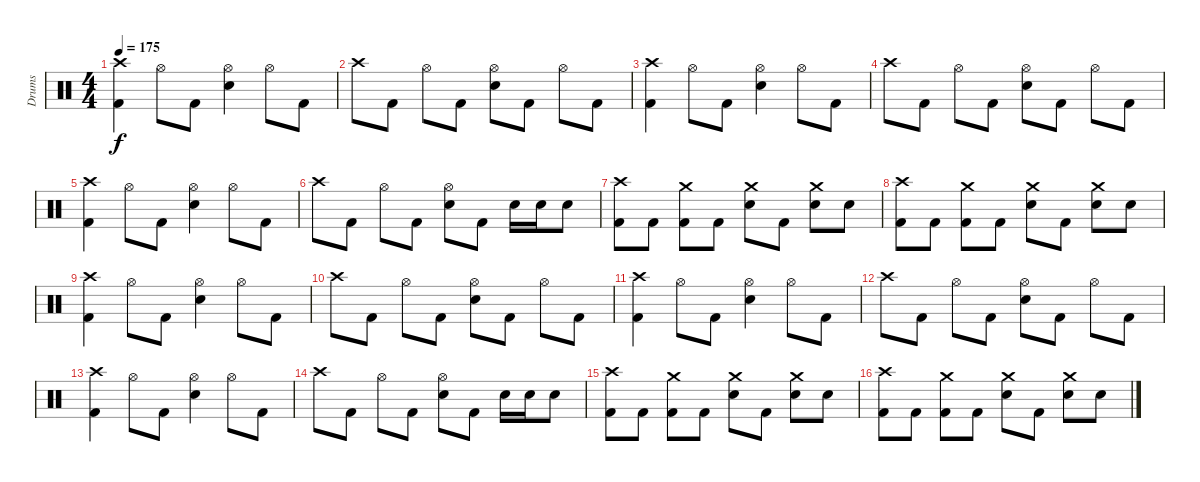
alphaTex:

\track ("Drums" "Drums") {instrument percussion}
\staff {score}
\articulation defaults
\ts (4 4)
\tempo 175
\clef neutral
\ks c
("Crash high (hit)" "Kick (hit) 2").4{dy f} "Hi-Hat (open)".8 "Kick (hit) 2".8 ("Hi-Hat (open)" "Snare (hit) 2").4 "Hi-Hat (open)".8 "Kick (hit) 2".8 |
"Crash high (hit)".8 "Kick (hit) 2".8 "Hi-Hat (open)".8 "Kick (hit) 2".8 ("Hi-Hat (open)" "Snare (hit) 2").8 "Kick (hit) 2".8 "Hi-Hat (open)".8 "Kick (hit) 2".8 |
("Crash high (hit)" "Kick (hit) 2").4 "Hi-Hat (open)".8 "Kick (hit) 2".8 ("Hi-Hat (open)" "Snare (hit) 2").4 "Hi-Hat (open)".8 "Kick (hit) 2".8 |
"Crash high (hit)".8 "Kick (hit) 2".8 "Hi-Hat (open)".8 "Kick (hit) 2".8 ("Hi-Hat (open)" "Snare (hit) 2").8 "Kick (hit) 2".8 "Hi-Hat (open)".8 "Kick (hit) 2".8 |
("Crash high (hit)" "Kick (hit) 2").4 "Hi-Hat (open)".8 "Kick (hit) 2".8 ("Hi-Hat (open)" "Snare (hit) 2").4 "Hi-Hat (open)".8 "Kick (hit) 2".8 |
"Crash high (hit)".8 "Kick (hit) 2".8 "Hi-Hat (open)".8 "Kick (hit) 2".8 ("Hi-Hat (open)" "Snare (hit) 2").8 "Kick (hit) 2".8 "Snare (hit) 2".16 "Snare (hit) 2".16 "Snare (hit) 2".8 |
("Crash high (hit)" "Kick (hit) 2").8 "Kick (hit) 2".8 ("Crash medium (hit)" "Kick (hit) 2").8 "Kick (hit) 2".8 ("Crash medium (hit)" "Snare (hit) 2").8 "Kick (hit) 2".8 ("Crash medium (hit)" "Snare (hit) 2").8 "Snare (hit) 2".8 |
("Crash high (hit)" "Kick (hit) 2").8 "Kick (hit) 2".8 ("Crash medium (hit)" "Kick (hit) 2").8 "Kick (hit) 2".8 ("Crash medium (hit)" "Snare (hit) 2").8 "Kick (hit) 2".8 ("Crash medium (hit)" "Snare (hit) 2").8 "Snare (hit) 2".8 |
("Crash high (hit)" "Kick (hit) 2").4 "Hi-Hat (open)".8 "Kick (hit) 2".8 ("Hi-Hat (open)" "Snare (hit) 2").4 "Hi-Hat (open)".8 "Kick (hit) 2".8 |
"Crash high (hit)".8 "Kick (hit) 2".8 "Hi-Hat (open)".8 "Kick (hit) 2".8 ("Hi-Hat (open)" "Snare (hit) 2").8 "Kick (hit) 2".8 "Hi-Hat (open)".8 "Kick (hit) 2".8 |
("Crash high (hit)" "Kick (hit) 2").4 "Hi-Hat (open)".8 "Kick (hit) 2".8 ("Hi-Hat (open)" "Snare (hit) 2").4 "Hi-Hat (open)".8 "Kick (hit) 2".8 |
"Crash high (hit)".8 "Kick (hit) 2".8 "Hi-Hat (open)".8 "Kick (hit) 2".8 ("Hi-Hat (open)" "Snare (hit) 2").8 "Kick (hit) 2".8 "Hi-Hat (open)".8 "Kick (hit) 2".8 |
("Crash high (hit)" "Kick (hit) 2").4 "Hi-Hat (open)".8 "Kick (hit) 2".8 ("Hi-Hat (open)" "Snare (hit) 2").4 "Hi-Hat (open)".8 "Kick (hit) 2".8 |
"Crash high (hit)".8 "Kick (hit) 2".8 "Hi-Hat (open)".8 "Kick (hit) 2".8 ("Hi-Hat (open)" "Snare (hit) 2").8 "Kick (hit) 2".8 "Snare (hit) 2".16 "Snare (hit) 2".16 "Snare (hit) 2".8 |
("Crash high (hit)" "Kick (hit) 2").8 "Kick (hit) 2".8 ("Crash medium (hit)" "Kick (hit) 2").8 "Kick (hit) 2".8 ("Crash medium (hit)" "Snare (hit) 2").8 "Kick (hit) 2".8 ("Crash medium (hit)" "Snare (hit) 2").8 "Snare (hit) 2".8 |
("Crash high (hit)" "Kick (hit) 2").8 "Kick (hit) 2".8 ("Crash medium (hit)" "Kick (hit) 2").8 "Kick (hit) 2".8 ("Crash medium (hit)" "Snare (hit) 2").8 "Kick (hit) 2".8 ("Crash medium (hit)" "Snare (hit) 2").8 "Snare (hit) 2".8
